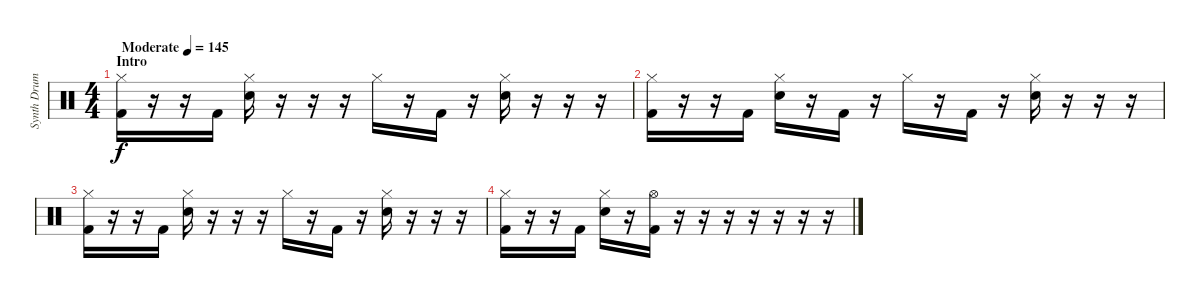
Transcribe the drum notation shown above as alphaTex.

\track ("Synth Drums" "Synth Drum") {instrument percussion}
\staff {score}
\articulation defaults
\ts (4 4)
\section ("" "Intro")
\tempo (145 "Moderate")
\clef neutral
\ks c
("Hi-Hat (closed)" "Kick (hit) 2").16{dy f} r.16 r.16 "Kick (hit) 2".16 ("Hi-Hat (closed)" "Electric Snare (hit)").16 r.16 r.16 r.16 "Hi-Hat (closed)".16 r.16 "Kick (hit) 2".16 r.16 ("Hi-Hat (closed)" "Electric Snare (hit)").16 r.16 r.16 r.16 |
("Hi-Hat (closed)" "Kick (hit) 2").16 r.16 r.16 "Kick (hit) 2".16 ("Hi-Hat (closed)" "Electric Snare (hit)").16 r.16 "Kick (hit) 2".16 r.16 "Hi-Hat (closed)".16 r.16 "Kick (hit) 2".16 r.16 ("Hi-Hat (closed)" "Electric Snare (hit)").16 r.16 r.16 r.16 |
("Hi-Hat (closed)" "Kick (hit) 2").16 r.16 r.16 "Kick (hit) 2".16 ("Hi-Hat (closed)" "Electric Snare (hit)").16 r.16 r.16 r.16 "Hi-Hat (closed)".16 r.16 "Kick (hit) 2".16 r.16 ("Hi-Hat (closed)" "Electric Snare (hit)").16 r.16 r.16 r.16 |
("Hi-Hat (closed)" "Kick (hit) 2").16 r.16 r.16 "Kick (hit) 2".16 ("Hi-Hat (closed)" "Electric Snare (hit)").16 r.16 ("Hi-Hat (open)" "Kick (hit) 2").16 r.16 r.16 r.16 r.16 r.16 r.16 r.16
